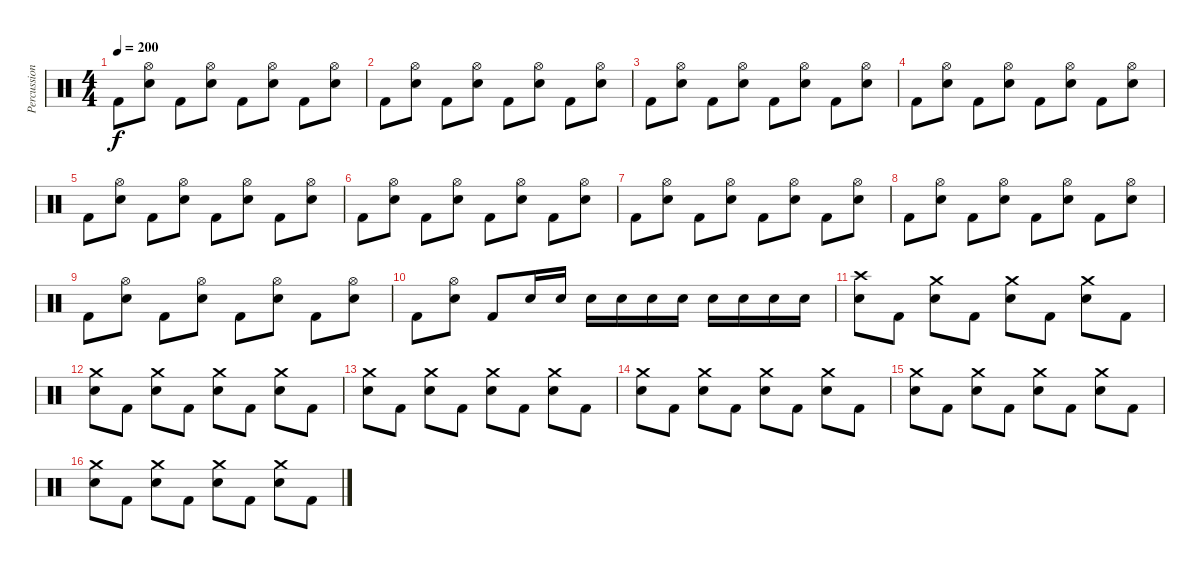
\track ("Percussion" "Percussion") {instrument percussion}
\staff {score}
\articulation defaults
\ts (4 4)
\tempo 200
\clef neutral
\ks c "Kick (hit) 2".8{dy f}
("Hi-Hat (open)" "Electric Snare (hit)").8 "Kick (hit) 2".8 ("Hi-Hat (open)" "Electric Snare (hit)").8 "Kick (hit) 2".8 ("Hi-Hat (open)" "Electric Snare (hit)").8 "Kick (hit) 2".8 ("Hi-Hat (open)" "Electric Snare (hit)").8 |
"Kick (hit) 2".8 ("Hi-Hat (open)" "Electric Snare (hit)").8 "Kick (hit) 2".8 ("Hi-Hat (open)" "Electric Snare (hit)").8 "Kick (hit) 2".8 ("Hi-Hat (open)" "Electric Snare (hit)").8 "Kick (hit) 2".8 ("Hi-Hat (open)" "Electric Snare (hit)").8 |
"Kick (hit) 2".8 ("Hi-Hat (open)" "Electric Snare (hit)").8 "Kick (hit) 2".8 ("Hi-Hat (open)" "Electric Snare (hit)").8 "Kick (hit) 2".8 ("Hi-Hat (open)" "Electric Snare (hit)").8 "Kick (hit) 2".8 ("Hi-Hat (open)" "Electric Snare (hit)").8 |
"Kick (hit) 2".8 ("Hi-Hat (open)" "Electric Snare (hit)").8 "Kick (hit) 2".8 ("Hi-Hat (open)" "Electric Snare (hit)").8 "Kick (hit) 2".8 ("Hi-Hat (open)" "Electric Snare (hit)").8 "Kick (hit) 2".8 ("Hi-Hat (open)" "Electric Snare (hit)").8 |
"Kick (hit) 2".8 ("Hi-Hat (open)" "Electric Snare (hit)").8 "Kick (hit) 2".8 ("Hi-Hat (open)" "Electric Snare (hit)").8 "Kick (hit) 2".8 ("Hi-Hat (open)" "Electric Snare (hit)").8 "Kick (hit) 2".8 ("Hi-Hat (open)" "Electric Snare (hit)").8 |
"Kick (hit) 2".8 ("Hi-Hat (open)" "Electric Snare (hit)").8 "Kick (hit) 2".8 ("Hi-Hat (open)" "Electric Snare (hit)").8 "Kick (hit) 2".8 ("Hi-Hat (open)" "Electric Snare (hit)").8 "Kick (hit) 2".8 ("Hi-Hat (open)" "Electric Snare (hit)").8 |
"Kick (hit) 2".8 ("Hi-Hat (open)" "Electric Snare (hit)").8 "Kick (hit) 2".8 ("Hi-Hat (open)" "Electric Snare (hit)").8 "Kick (hit) 2".8 ("Hi-Hat (open)" "Electric Snare (hit)").8 "Kick (hit) 2".8 ("Hi-Hat (open)" "Electric Snare (hit)").8 |
"Kick (hit) 2".8 ("Hi-Hat (open)" "Electric Snare (hit)").8 "Kick (hit) 2".8 ("Hi-Hat (open)" "Electric Snare (hit)").8 "Kick (hit) 2".8 ("Hi-Hat (open)" "Electric Snare (hit)").8 "Kick (hit) 2".8 ("Hi-Hat (open)" "Electric Snare (hit)").8 |
"Kick (hit) 2".8 ("Hi-Hat (open)" "Electric Snare (hit)").8 "Kick (hit) 2".8 ("Hi-Hat (open)" "Electric Snare (hit)").8 "Kick (hit) 2".8 ("Hi-Hat (open)" "Electric Snare (hit)").8 "Kick (hit) 2".8 ("Hi-Hat (open)" "Electric Snare (hit)").8 |
"Kick (hit) 2".8 ("Hi-Hat (open)" "Electric Snare (hit)").8 "Kick (hit) 2".8 "Electric Snare (hit)".16 "Electric Snare (hit)".16 "Electric Snare (hit)".16 "Electric Snare (hit)".16 "Electric Snare (hit)".16 "Electric Snare (hit)".16 "Electric Snare (hit)".16 "Electric Snare (hit)".16 "Electric Snare (hit)".16 "Electric Snare (hit)".16 |
("Crash high (hit)" "Electric Snare (hit)").8 "Kick (hit) 2".8 ("Crash medium (hit)" "Electric Snare (hit)").8 "Kick (hit) 2".8 ("Crash medium (hit)" "Electric Snare (hit)").8 "Kick (hit) 2".8 ("Crash medium (hit)" "Electric Snare (hit)").8 "Kick (hit) 2".8 |
("Crash medium (hit)" "Electric Snare (hit)").8 "Kick (hit) 2".8 ("Crash medium (hit)" "Electric Snare (hit)").8 "Kick (hit) 2".8 ("Crash medium (hit)" "Electric Snare (hit)").8 "Kick (hit) 2".8 ("Crash medium (hit)" "Electric Snare (hit)").8 "Kick (hit) 2".8 |
("Crash medium (hit)" "Electric Snare (hit)").8 "Kick (hit) 2".8 ("Crash medium (hit)" "Electric Snare (hit)").8 "Kick (hit) 2".8 ("Crash medium (hit)" "Electric Snare (hit)").8 "Kick (hit) 2".8 ("Crash medium (hit)" "Electric Snare (hit)").8 "Kick (hit) 2".8 |
("Crash medium (hit)" "Electric Snare (hit)").8 "Kick (hit) 2".8 ("Crash medium (hit)" "Electric Snare (hit)").8 "Kick (hit) 2".8 ("Crash medium (hit)" "Electric Snare (hit)").8 "Kick (hit) 2".8 ("Crash medium (hit)" "Electric Snare (hit)").8 "Kick (hit) 2".8 |
("Crash medium (hit)" "Electric Snare (hit)").8 "Kick (hit) 2".8 ("Crash medium (hit)" "Electric Snare (hit)").8 "Kick (hit) 2".8 ("Crash medium (hit)" "Electric Snare (hit)").8 "Kick (hit) 2".8 ("Crash medium (hit)" "Electric Snare (hit)").8 "Kick (hit) 2".8 |
("Crash medium (hit)" "Electric Snare (hit)").8 "Kick (hit) 2".8 ("Crash medium (hit)" "Electric Snare (hit)").8 "Kick (hit) 2".8 ("Crash medium (hit)" "Electric Snare (hit)").8 "Kick (hit) 2".8 ("Crash medium (hit)" "Electric Snare (hit)").8 "Kick (hit) 2".8
